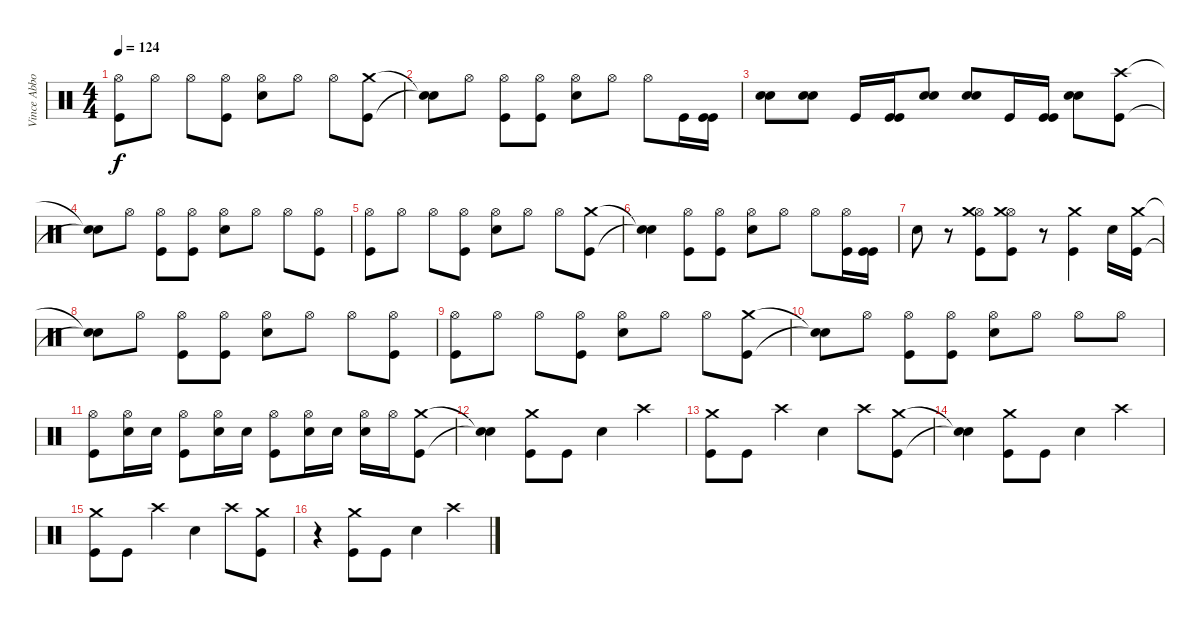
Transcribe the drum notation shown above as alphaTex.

\track ("Vince Abbott (Drums)" "Vince Abbo") {instrument percussion}
\staff {score}
\articulation defaults
\ts (4 4)
\tempo 124
\clef neutral
\ks c
("Kick (hit)" "Hi-Hat (open)").8{dy f} "Hi-Hat (open)".8 "Hi-Hat (open)".8 ("Kick (hit)" "Hi-Hat (open)").8 ("Electric Snare (hit)" "Hi-Hat (open)").8 "Hi-Hat (open)".8 "Hi-Hat (open)".8 ("Kick (hit)" "Crash medium (hit)").8 |
("Snare (hit)"{t} "Snare (hit)"{t}).8 "Hi-Hat (open)".8 ("Hi-Hat (open)" "Kick (hit)").8 ("Hi-Hat (open)" "Kick (hit)").8 ("Hi-Hat (open)" "Electric Snare (hit)").8 "Hi-Hat (open)".8 "Hi-Hat (open)".8 "Kick (hit)".16 ("Kick (hit)" "Kick (hit)").16 |
("Electric Snare (hit)" "Electric Snare (hit)").8 ("Electric Snare (hit)" "Electric Snare (hit)").8 "Kick (hit)".16 ("Kick (hit)" "Kick (hit)").16 ("Electric Snare (hit)" "Electric Snare (hit)").8 ("Electric Snare (hit)" "Electric Snare (hit)").8 "Kick (hit)".16 ("Kick (hit)" "Kick (hit)").16 ("Electric Snare (hit)" "Electric Snare (hit)").8 ("Crash high (hit)" "Kick (hit)").8 |
("Snare (hit)"{t} "Snare (hit)"{t}).8 "Hi-Hat (open)".8 ("Hi-Hat (open)" "Kick (hit)").8 ("Hi-Hat (open)" "Kick (hit)").8 ("Hi-Hat (open)" "Electric Snare (hit)").8 "Hi-Hat (open)".8 "Hi-Hat (open)".8 ("Hi-Hat (open)" "Kick (hit)").8 |
("Kick (hit)" "Hi-Hat (open)").8 "Hi-Hat (open)".8 "Hi-Hat (open)".8 ("Hi-Hat (open)" "Kick (hit)").8 ("Electric Snare (hit)" "Hi-Hat (open)").8 "Hi-Hat (open)".8 "Hi-Hat (open)".8 ("Kick (hit)" "Crash medium (hit)").8 |
("Snare (hit)"{t} "Snare (hit)"{t}).4 ("Hi-Hat (open)" "Kick (hit)").8 ("Hi-Hat (open)" "Kick (hit)").8 ("Hi-Hat (open)" "Electric Snare (hit)").8 "Hi-Hat (open)".8 "Hi-Hat (open)".8 ("Kick (hit)" "Hi-Hat (open)").16 ("Kick (hit)" "Kick (hit)").16 |
"Electric Snare (hit)".8 r.8 ("Hi-Hat (open)" "Crash medium (hit)" "Kick (hit)").8 ("Hi-Hat (open)" "Crash medium (hit)" "Kick (hit)").8 r.8 ("Crash medium (hit)" "Kick (hit)").4 "Electric Snare (hit)".16 ("Crash medium (hit)" "Kick (hit)").16 |
("Snare (hit)"{t} "Snare (hit)"{t}).8 "Hi-Hat (open)".8 ("Kick (hit)" "Hi-Hat (open)").8 ("Kick (hit)" "Hi-Hat (open)").8 ("Electric Snare (hit)" "Hi-Hat (open)").8 "Hi-Hat (open)".8 "Hi-Hat (open)".8 ("Hi-Hat (open)" "Kick (hit)").8 |
("Kick (hit)" "Hi-Hat (open)").8 "Hi-Hat (open)".8 "Hi-Hat (open)".8 ("Hi-Hat (open)" "Kick (hit)").8 ("Electric Snare (hit)" "Hi-Hat (open)").8 "Hi-Hat (open)".8 "Hi-Hat (open)".8 ("Crash medium (hit)" "Kick (hit)").8 |
("Snare (hit)"{t} "Snare (hit)"{t}).8 "Hi-Hat (open)".8 ("Kick (hit)" "Hi-Hat (open)").8 ("Kick (hit)" "Hi-Hat (open)").8 ("Electric Snare (hit)" "Hi-Hat (open)").8 "Hi-Hat (open)".8 "Hi-Hat (open)".8 "Hi-Hat (open)".8 |
("Kick (hit)" "Hi-Hat (open)").8 ("Electric Snare (hit)" "Hi-Hat (open)").16 "Electric Snare (hit)".16 ("Kick (hit)" "Hi-Hat (open)").8 ("Hi-Hat (open)" "Electric Snare (hit)").16 "Electric Snare (hit)".16 ("Kick (hit)" "Hi-Hat (open)").8 ("Electric Snare (hit)" "Hi-Hat (open)").16 "Electric Snare (hit)".16 ("Electric Snare (hit)" "Hi-Hat (open)").16 "Hi-Hat (open)".16 ("Kick (hit)" "Crash medium (hit)").8 |
("Snare (hit)"{t} "Snare (hit)"{t}).4 ("Crash medium (hit)" "Kick (hit)").8 "Kick (hit)".8 "Electric Snare (hit)".4 "Crash high (hit)".4 |
("Crash medium (hit)" "Kick (hit)").8 "Kick (hit)".8 "Crash high (hit)".4 "Electric Snare (hit)".4 "Crash high (hit)".8 ("Kick (hit)" "Crash medium (hit)").8 |
("Snare (hit)"{t} "Snare (hit)"{t}).4 ("Crash medium (hit)" "Kick (hit)").8 "Kick (hit)".8 "Electric Snare (hit)".4 "Crash high (hit)".4 |
("Crash medium (hit)" "Kick (hit)").8 "Kick (hit)".8 "Crash high (hit)".4 "Electric Snare (hit)".4 "Crash high (hit)".8 ("Kick (hit)" "Crash medium (hit)").8 |
r.4 ("Crash medium (hit)" "Kick (hit)").8 "Kick (hit)".8 "Electric Snare (hit)".4 "Crash high (hit)".4
